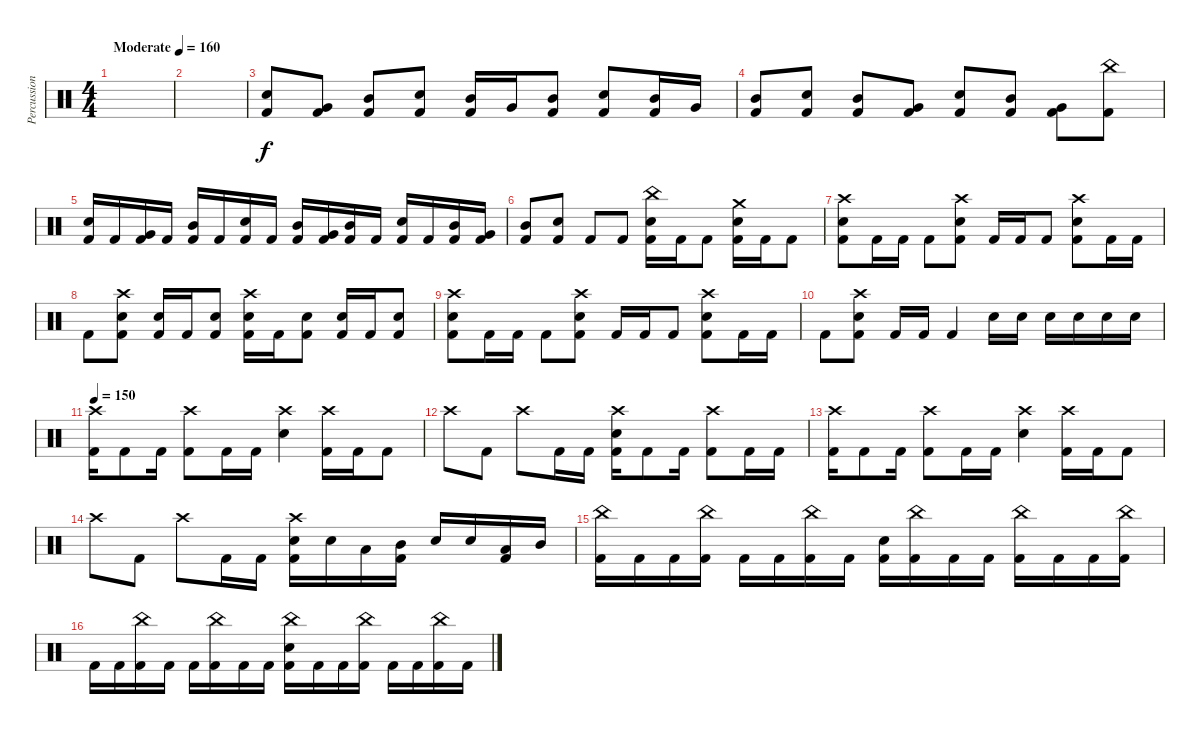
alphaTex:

\track ("Percussion" "Percussion") {instrument percussion}
\staff {score}
\articulation defaults
\ts (4 4)
\tempo (160 "Moderate")
\clef neutral
\ks c
|
|
("Electric Snare (hit)" "Kick (hit) 2").8 ("Very Low Tom (hit)" "Kick (hit) 2").8 ("Mid Tom (hit)" "Kick (hit) 2").8 ("Electric Snare (hit)" "Kick (hit) 2").8 ("Mid Tom (hit)" "Kick (hit) 2").16 "Very Low Tom (hit)".16 ("Mid Tom (hit)" "Kick (hit) 2").8 ("Electric Snare (hit)" "Kick (hit) 2").8 ("Mid Tom (hit)" "Kick (hit) 2").16 "Very Low Tom (hit)".16 |
("Mid Tom (hit)" "Kick (hit) 2").8 ("Electric Snare (hit)" "Kick (hit) 2").8 ("Mid Tom (hit)" "Kick (hit) 2").8 ("Very Low Tom (hit)" "Kick (hit) 2").8 ("Electric Snare (hit)" "Kick (hit) 2").8 ("Mid Tom (hit)" "Kick (hit) 2").8 ("Very Low Tom (hit)" "Kick (hit) 2").8 ("China (hit)" "Kick (hit) 2").8 |
("Electric Snare (hit)" "Kick (hit) 2").16 "Kick (hit) 2".16 ("Very Low Tom (hit)" "Kick (hit) 2").16 "Kick (hit) 2".16 ("Mid Tom (hit)" "Kick (hit) 2").16 "Kick (hit) 2".16 ("Electric Snare (hit)" "Kick (hit) 2").16 "Kick (hit) 2".16 ("Mid Tom (hit)" "Kick (hit) 2").16 ("Very Low Tom (hit)" "Kick (hit) 2").16 ("Mid Tom (hit)" "Kick (hit) 2").16 "Kick (hit) 2".16 ("Electric Snare (hit)" "Kick (hit) 2").16 "Kick (hit) 2".16 ("Mid Tom (hit)" "Kick (hit) 2").16 ("Very Low Tom (hit)" "Kick (hit) 2").16 |
("Mid Tom (hit)" "Kick (hit) 2").8 ("Electric Snare (hit)" "Kick (hit) 2").8 "Kick (hit) 2".8 "Kick (hit) 2".8 ("China (hit)" "Electric Snare (hit)" "Kick (hit) 2").16 "Kick (hit) 2".16 "Kick (hit) 2".8 ("Crash medium (hit)" "Electric Snare (hit)" "Kick (hit) 2").16 "Kick (hit) 2".16 "Kick (hit) 2".8 |
("Crash high (hit)" "Electric Snare (hit)" "Kick (hit) 2").8 "Kick (hit) 2".16 "Kick (hit) 2".16 "Kick (hit) 2".8 ("Crash high (hit)" "Electric Snare (hit)" "Kick (hit) 2").8 "Kick (hit) 2".16 "Kick (hit) 2".16 "Kick (hit) 2".8 ("Crash high (hit)" "Electric Snare (hit)" "Kick (hit) 2").8 "Kick (hit) 2".16 "Kick (hit) 2".16 |
"Kick (hit) 2".8 ("Crash high (hit)" "Electric Snare (hit)" "Kick (hit) 2").8 ("Electric Snare (hit)" "Kick (hit) 2").16 "Kick (hit) 2".16 ("Electric Snare (hit)" "Kick (hit) 2").8 ("Crash high (hit)" "Electric Snare (hit)" "Kick (hit) 2").16 "Kick (hit) 2".16 ("Electric Snare (hit)" "Kick (hit) 2").8 ("Electric Snare (hit)" "Kick (hit) 2").16 "Kick (hit) 2".16 ("Electric Snare (hit)" "Kick (hit) 2").8 |
("Crash high (hit)" "Electric Snare (hit)" "Kick (hit) 2").8 "Kick (hit) 2".16 "Kick (hit) 2".16 "Kick (hit) 2".8 ("Crash high (hit)" "Electric Snare (hit)" "Kick (hit) 2").8 "Kick (hit) 2".16 "Kick (hit) 2".16 "Kick (hit) 2".8 ("Crash high (hit)" "Electric Snare (hit)" "Kick (hit) 2").8 "Kick (hit) 2".16 "Kick (hit) 2".16 |
"Kick (hit) 2".8 ("Crash high (hit)" "Electric Snare (hit)" "Kick (hit) 2").8 "Kick (hit) 2".16 "Kick (hit) 2".16 "Kick (hit) 2".4 "Electric Snare (hit)".16 "Electric Snare (hit)".16 "Electric Snare (hit)".16 "Electric Snare (hit)".16 "Electric Snare (hit)".16 "Electric Snare (hit)".16 |
\tempo 150
("Crash high (hit)" "Kick (hit) 2").16 "Kick (hit) 2".8 "Kick (hit) 2".16 ("Crash high (hit)" "Kick (hit) 2").8 "Kick (hit) 2".16 "Kick (hit) 2".16 ("Crash high (hit)" "Electric Snare (hit)").4 ("Crash high (hit)" "Kick (hit) 2").16 "Kick (hit) 2".16 "Kick (hit) 2".8 |
"Crash high (hit)".8 "Kick (hit) 2".8 "Crash high (hit)".8 "Kick (hit) 2".16 "Kick (hit) 2".16 ("Crash high (hit)" "Electric Snare (hit)" "Kick (hit) 2").16 "Kick (hit) 2".8 "Kick (hit) 2".16 ("Crash high (hit)" "Kick (hit) 2").8 "Kick (hit) 2".16 "Kick (hit) 2".16 |
("Crash high (hit)" "Kick (hit) 2").16 "Kick (hit) 2".8 "Kick (hit) 2".16 ("Crash high (hit)" "Kick (hit) 2").8 "Kick (hit) 2".16 "Kick (hit) 2".16 ("Crash high (hit)" "Electric Snare (hit)").4 ("Crash high (hit)" "Kick (hit) 2").16 "Kick (hit) 2".16 "Kick (hit) 2".8 |
"Crash high (hit)".8 "Kick (hit) 2".8 "Crash high (hit)".8 "Kick (hit) 2".16 "Kick (hit) 2".16 ("Crash high (hit)" "Electric Snare (hit)" "Kick (hit) 2").16 "Electric Snare (hit)".16 "Low Tom (hit)".16 ("Mid Tom (hit)" "Kick (hit) 2").16 "Electric Snare (hit)".16 "Electric Snare (hit)".16 ("Low Tom (hit)" "Kick (hit) 2").16 "Mid Tom (hit)".16 |
("China (hit)" "Kick (hit) 2").16 "Kick (hit) 2".16 "Kick (hit) 2".16 ("China (hit)" "Kick (hit) 2").16 "Kick (hit) 2".16 "Kick (hit) 2".16 ("China (hit)" "Kick (hit) 2").16 "Kick (hit) 2".16 ("Electric Snare (hit)" "Kick (hit) 2").16 ("China (hit)" "Kick (hit) 2").16 "Kick (hit) 2".16 "Kick (hit) 2".16 ("China (hit)" "Kick (hit) 2").16 "Kick (hit) 2".16 "Kick (hit) 2".16 ("China (hit)" "Kick (hit) 2").16 |
"Kick (hit) 2".16 "Kick (hit) 2".16 ("China (hit)" "Kick (hit) 2").16 "Kick (hit) 2".16 "Kick (hit) 2".16 ("China (hit)" "Kick (hit) 2").16 "Kick (hit) 2".16 "Kick (hit) 2".16 ("China (hit)" "Electric Snare (hit)" "Kick (hit) 2").16 "Kick (hit) 2".16 "Kick (hit) 2".16 ("China (hit)" "Kick (hit) 2").16 "Kick (hit) 2".16 "Kick (hit) 2".16 ("China (hit)" "Kick (hit) 2").16 "Kick (hit) 2".16
